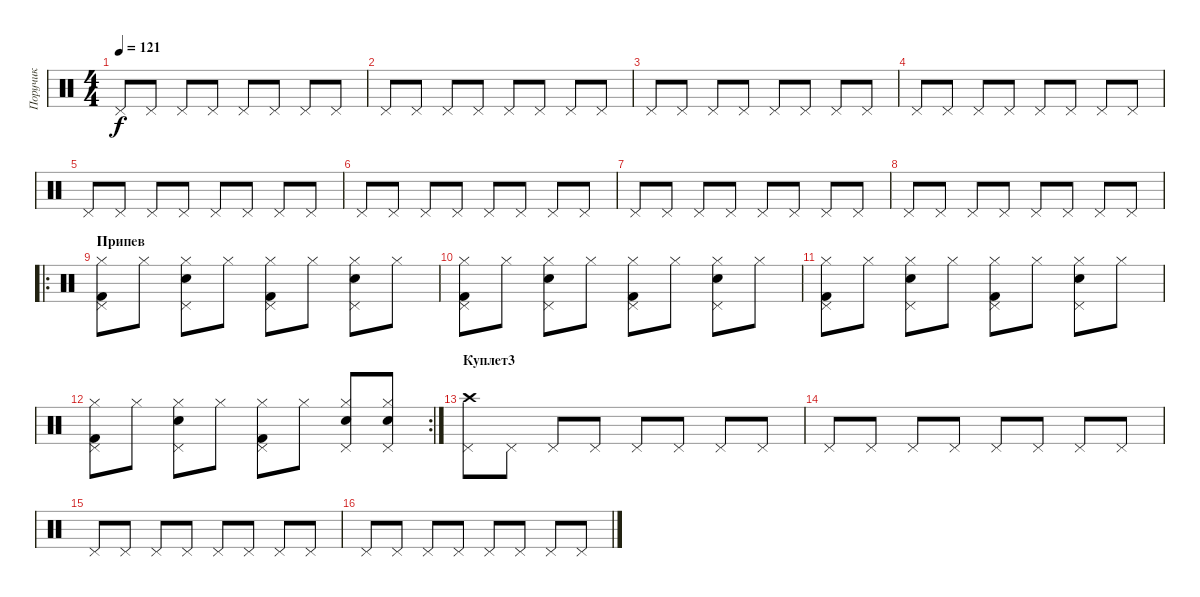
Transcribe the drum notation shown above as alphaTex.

\track ("Поручик" "Поручик") {instrument percussion}
\staff {score}
\articulation defaults
\ts (4 4)
\tempo 121
\clef neutral
\ks c "Pedal Hi-Hat (hit)".8{dy f} "Pedal Hi-Hat (hit)".8 "Pedal Hi-Hat (hit)".8 "Pedal Hi-Hat (hit)".8 "Pedal Hi-Hat (hit)".8 "Pedal Hi-Hat (hit)".8 "Pedal Hi-Hat (hit)".8 "Pedal Hi-Hat (hit)".8
|
"Pedal Hi-Hat (hit)".8 "Pedal Hi-Hat (hit)".8 "Pedal Hi-Hat (hit)".8 "Pedal Hi-Hat (hit)".8 "Pedal Hi-Hat (hit)".8 "Pedal Hi-Hat (hit)".8 "Pedal Hi-Hat (hit)".8 "Pedal Hi-Hat (hit)".8 |
"Pedal Hi-Hat (hit)".8 "Pedal Hi-Hat (hit)".8 "Pedal Hi-Hat (hit)".8 "Pedal Hi-Hat (hit)".8 "Pedal Hi-Hat (hit)".8 "Pedal Hi-Hat (hit)".8 "Pedal Hi-Hat (hit)".8 "Pedal Hi-Hat (hit)".8 |
"Pedal Hi-Hat (hit)".8 "Pedal Hi-Hat (hit)".8 "Pedal Hi-Hat (hit)".8 "Pedal Hi-Hat (hit)".8 "Pedal Hi-Hat (hit)".8 "Pedal Hi-Hat (hit)".8 "Pedal Hi-Hat (hit)".8 "Pedal Hi-Hat (hit)".8 |
"Pedal Hi-Hat (hit)".8 "Pedal Hi-Hat (hit)".8 "Pedal Hi-Hat (hit)".8 "Pedal Hi-Hat (hit)".8 "Pedal Hi-Hat (hit)".8 "Pedal Hi-Hat (hit)".8 "Pedal Hi-Hat (hit)".8 "Pedal Hi-Hat (hit)".8 |
"Pedal Hi-Hat (hit)".8 "Pedal Hi-Hat (hit)".8 "Pedal Hi-Hat (hit)".8 "Pedal Hi-Hat (hit)".8 "Pedal Hi-Hat (hit)".8 "Pedal Hi-Hat (hit)".8 "Pedal Hi-Hat (hit)".8 "Pedal Hi-Hat (hit)".8 |
"Pedal Hi-Hat (hit)".8 "Pedal Hi-Hat (hit)".8 "Pedal Hi-Hat (hit)".8 "Pedal Hi-Hat (hit)".8 "Pedal Hi-Hat (hit)".8 "Pedal Hi-Hat (hit)".8 "Pedal Hi-Hat (hit)".8 "Pedal Hi-Hat (hit)".8 |
"Pedal Hi-Hat (hit)".8 "Pedal Hi-Hat (hit)".8 "Pedal Hi-Hat (hit)".8 "Pedal Hi-Hat (hit)".8 "Pedal Hi-Hat (hit)".8 "Pedal Hi-Hat (hit)".8 "Pedal Hi-Hat (hit)".8 "Pedal Hi-Hat (hit)".8 |
\ro
\section ("" "Припев")
("Pedal Hi-Hat (hit)" "Hi-Hat (closed)" "Kick (hit) 2").8 "Hi-Hat (closed)".8 ("Pedal Hi-Hat (hit)" "Hi-Hat (closed)" "Snare (hit) 2").8 "Hi-Hat (closed)".8 ("Pedal Hi-Hat (hit)" "Hi-Hat (closed)" "Kick (hit) 2").8 "Hi-Hat (closed)".8 ("Pedal Hi-Hat (hit)" "Hi-Hat (closed)" "Snare (hit) 2").8 "Hi-Hat (closed)".8 |
("Pedal Hi-Hat (hit)" "Hi-Hat (closed)" "Kick (hit) 2").8 "Hi-Hat (closed)".8 ("Pedal Hi-Hat (hit)" "Hi-Hat (closed)" "Snare (hit) 2").8 "Hi-Hat (closed)".8 ("Pedal Hi-Hat (hit)" "Hi-Hat (closed)" "Kick (hit) 2").8 "Hi-Hat (closed)".8 ("Pedal Hi-Hat (hit)" "Hi-Hat (closed)" "Snare (hit) 2").8 "Hi-Hat (closed)".8 |
("Pedal Hi-Hat (hit)" "Hi-Hat (closed)" "Kick (hit) 2").8 "Hi-Hat (closed)".8 ("Pedal Hi-Hat (hit)" "Hi-Hat (closed)" "Snare (hit) 2").8 "Hi-Hat (closed)".8 ("Pedal Hi-Hat (hit)" "Hi-Hat (closed)" "Kick (hit) 2").8 "Hi-Hat (closed)".8 ("Pedal Hi-Hat (hit)" "Hi-Hat (closed)" "Snare (hit) 2").8 "Hi-Hat (closed)".8 |
\rc 2
("Pedal Hi-Hat (hit)" "Hi-Hat (closed)" "Kick (hit) 2").8 "Hi-Hat (closed)".8 ("Pedal Hi-Hat (hit)" "Hi-Hat (closed)" "Snare (hit) 2").8 "Hi-Hat (closed)".8 ("Pedal Hi-Hat (hit)" "Hi-Hat (closed)" "Kick (hit) 2").8 "Hi-Hat (closed)".8 ("Pedal Hi-Hat (hit)" "Hi-Hat (closed)" "Snare (hit) 2").8 ("Pedal Hi-Hat (hit)" "Hi-Hat (closed)" "Snare (hit) 2").8 |
\section ("" "Куплет3")
("Pedal Hi-Hat (hit)" "Crash high (hit)").8{volume 12 balance 0} "Pedal Hi-Hat (hit)".8{volume 10 balance 8} "Pedal Hi-Hat (hit)".8 "Pedal Hi-Hat (hit)".8 "Pedal Hi-Hat (hit)".8 "Pedal Hi-Hat (hit)".8 "Pedal Hi-Hat (hit)".8 "Pedal Hi-Hat (hit)".8 |
"Pedal Hi-Hat (hit)".8 "Pedal Hi-Hat (hit)".8 "Pedal Hi-Hat (hit)".8 "Pedal Hi-Hat (hit)".8 "Pedal Hi-Hat (hit)".8 "Pedal Hi-Hat (hit)".8 "Pedal Hi-Hat (hit)".8 "Pedal Hi-Hat (hit)".8 |
"Pedal Hi-Hat (hit)".8 "Pedal Hi-Hat (hit)".8 "Pedal Hi-Hat (hit)".8 "Pedal Hi-Hat (hit)".8 "Pedal Hi-Hat (hit)".8 "Pedal Hi-Hat (hit)".8 "Pedal Hi-Hat (hit)".8 "Pedal Hi-Hat (hit)".8 |
"Pedal Hi-Hat (hit)".8 "Pedal Hi-Hat (hit)".8 "Pedal Hi-Hat (hit)".8 "Pedal Hi-Hat (hit)".8 "Pedal Hi-Hat (hit)".8 "Pedal Hi-Hat (hit)".8 "Pedal Hi-Hat (hit)".8 "Pedal Hi-Hat (hit)".8
